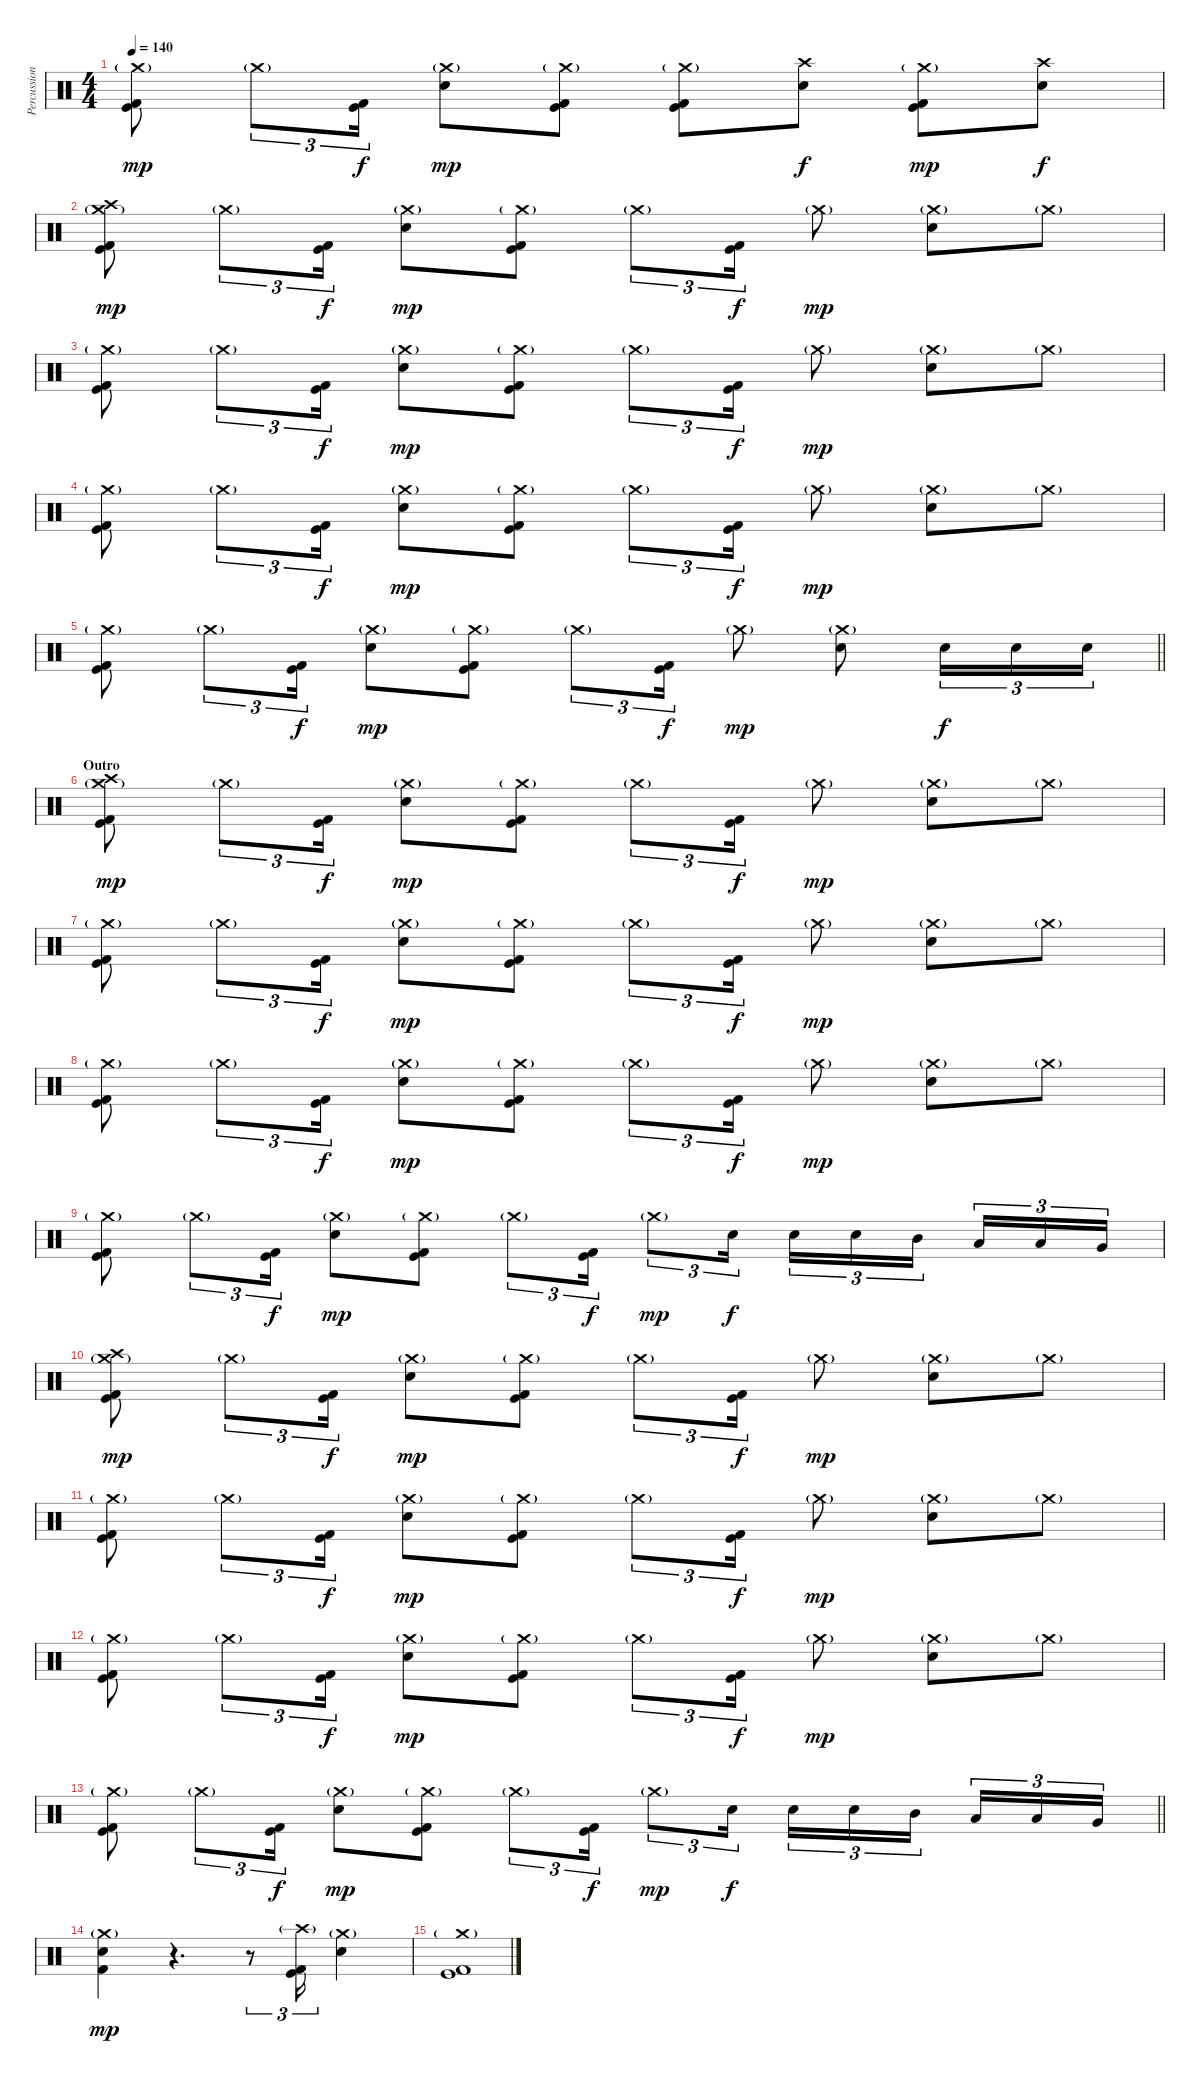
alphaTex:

\track ("Percussion" "Percussion") {instrument percussion}
\staff {score}
\articulation defaults
\ts (4 4)
\tempo 140
\clef neutral
\ks c
("Crash medium (hit)"{g} "Kick (hit)" "Kick (hit) 2").8{dy mp} "Crash medium (hit)"{g}.8{tu (3 2)} ("Kick (hit)" "Kick (hit) 2").16{tu (3 2) dy f} ("Crash medium (hit)"{g} "Electric Snare (hit)").8{dy mp} ("Crash medium (hit)"{g} "Kick (hit)" "Kick (hit) 2").8 ("Crash medium (hit)"{g} "Kick (hit)" "Kick (hit) 2").8 ("Crash high (hit)" "Electric Snare (hit)").8{dy f} ("Crash medium (hit)"{g} "Kick (hit)" "Kick (hit) 2").8{dy mp} ("Crash high (hit)" "Electric Snare (hit)").8{dy f} |
("Crash medium (hit)"{g} "Crash high (hit)" "Kick (hit)" "Kick (hit) 2").8{dy mp} "Crash medium (hit)"{g}.8{tu (3 2)} ("Kick (hit)" "Kick (hit) 2").16{tu (3 2) dy f} ("Crash medium (hit)"{g} "Electric Snare (hit)").8{dy mp} ("Crash medium (hit)"{g} "Kick (hit)" "Kick (hit) 2").8 "Crash medium (hit)"{g}.8{tu (3 2)} ("Kick (hit)" "Kick (hit) 2").16{tu (3 2) dy f} "Crash medium (hit)"{g}.8{dy mp} ("Crash medium (hit)"{g} "Electric Snare (hit)").8 "Crash medium (hit)"{g}.8 |
("Crash medium (hit)"{g} "Kick (hit)" "Kick (hit) 2").8 "Crash medium (hit)"{g}.8{tu (3 2)} ("Kick (hit)" "Kick (hit) 2").16{tu (3 2) dy f} ("Crash medium (hit)"{g} "Electric Snare (hit)").8{dy mp} ("Crash medium (hit)"{g} "Kick (hit)" "Kick (hit) 2").8 "Crash medium (hit)"{g}.8{tu (3 2)} ("Kick (hit)" "Kick (hit) 2").16{tu (3 2) dy f} "Crash medium (hit)"{g}.8{dy mp} ("Crash medium (hit)"{g} "Electric Snare (hit)").8 "Crash medium (hit)"{g}.8 |
("Crash medium (hit)"{g} "Kick (hit)" "Kick (hit) 2").8 "Crash medium (hit)"{g}.8{tu (3 2)} ("Kick (hit)" "Kick (hit) 2").16{tu (3 2) dy f} ("Crash medium (hit)"{g} "Electric Snare (hit)").8{dy mp} ("Crash medium (hit)"{g} "Kick (hit)" "Kick (hit) 2").8 "Crash medium (hit)"{g}.8{tu (3 2)} ("Kick (hit)" "Kick (hit) 2").16{tu (3 2) dy f} "Crash medium (hit)"{g}.8{dy mp} ("Crash medium (hit)"{g} "Electric Snare (hit)").8 "Crash medium (hit)"{g}.8 |
\barLineRight lightlight
("Crash medium (hit)"{g} "Kick (hit)" "Kick (hit) 2").8 "Crash medium (hit)"{g}.8{tu (3 2)} ("Kick (hit)" "Kick (hit) 2").16{tu (3 2) dy f} ("Crash medium (hit)"{g} "Electric Snare (hit)").8{dy mp} ("Crash medium (hit)"{g} "Kick (hit)" "Kick (hit) 2").8 "Crash medium (hit)"{g}.8{tu (3 2)} ("Kick (hit)" "Kick (hit) 2").16{tu (3 2) dy f} "Crash medium (hit)"{g}.8{dy mp} ("Crash medium (hit)"{g} "Electric Snare (hit)").8 "Electric Snare (hit)".16{tu (3 2) dy f} "Electric Snare (hit)".16{tu (3 2)} "Electric Snare (hit)".16{tu (3 2)} |
\section ("" "Outro")
("Crash medium (hit)"{g} "Crash high (hit)" "Kick (hit)" "Kick (hit) 2").8{dy mp} "Crash medium (hit)"{g}.8{tu (3 2)} ("Kick (hit)" "Kick (hit) 2").16{tu (3 2) dy f} ("Crash medium (hit)"{g} "Electric Snare (hit)").8{dy mp} ("Crash medium (hit)"{g} "Kick (hit)" "Kick (hit) 2").8 "Crash medium (hit)"{g}.8{tu (3 2)} ("Kick (hit)" "Kick (hit) 2").16{tu (3 2) dy f} "Crash medium (hit)"{g}.8{dy mp} ("Crash medium (hit)"{g} "Electric Snare (hit)").8 "Crash medium (hit)"{g}.8 |
("Crash medium (hit)"{g} "Kick (hit)" "Kick (hit) 2").8 "Crash medium (hit)"{g}.8{tu (3 2)} ("Kick (hit)" "Kick (hit) 2").16{tu (3 2) dy f} ("Crash medium (hit)"{g} "Electric Snare (hit)").8{dy mp} ("Crash medium (hit)"{g} "Kick (hit)" "Kick (hit) 2").8 "Crash medium (hit)"{g}.8{tu (3 2)} ("Kick (hit)" "Kick (hit) 2").16{tu (3 2) dy f} "Crash medium (hit)"{g}.8{dy mp} ("Crash medium (hit)"{g} "Electric Snare (hit)").8 "Crash medium (hit)"{g}.8 |
("Crash medium (hit)"{g} "Kick (hit)" "Kick (hit) 2").8 "Crash medium (hit)"{g}.8{tu (3 2)} ("Kick (hit)" "Kick (hit) 2").16{tu (3 2) dy f} ("Crash medium (hit)"{g} "Electric Snare (hit)").8{dy mp} ("Crash medium (hit)"{g} "Kick (hit)" "Kick (hit) 2").8 "Crash medium (hit)"{g}.8{tu (3 2)} ("Kick (hit)" "Kick (hit) 2").16{tu (3 2) dy f} "Crash medium (hit)"{g}.8{dy mp} ("Crash medium (hit)"{g} "Electric Snare (hit)").8 "Crash medium (hit)"{g}.8 |
("Crash medium (hit)"{g} "Kick (hit)" "Kick (hit) 2").8 "Crash medium (hit)"{g}.8{tu (3 2)} ("Kick (hit)" "Kick (hit) 2").16{tu (3 2) dy f} ("Crash medium (hit)"{g} "Electric Snare (hit)").8{dy mp} ("Crash medium (hit)"{g} "Kick (hit)" "Kick (hit) 2").8 "Crash medium (hit)"{g}.8{tu (3 2)} ("Kick (hit)" "Kick (hit) 2").16{tu (3 2) dy f} "Crash medium (hit)"{g}.8{tu (3 2) dy mp} "Electric Snare (hit)".16{tu (3 2) dy f} "Electric Snare (hit)".16{tu (3 2)} "Electric Snare (hit)".16{tu (3 2)} "Mid Tom (hit)".16{tu (3 2) beam splitsecondary} "Low Tom (hit)".16{tu (3 2)} "Low Tom (hit)".16{tu (3 2)} "Very Low Tom (hit)".16{tu (3 2)} |
("Crash medium (hit)"{g} "Crash high (hit)" "Kick (hit)" "Kick (hit) 2").8{dy mp} "Crash medium (hit)"{g}.8{tu (3 2)} ("Kick (hit)" "Kick (hit) 2").16{tu (3 2) dy f} ("Crash medium (hit)"{g} "Electric Snare (hit)").8{dy mp} ("Crash medium (hit)"{g} "Kick (hit)" "Kick (hit) 2").8 "Crash medium (hit)"{g}.8{tu (3 2)} ("Kick (hit)" "Kick (hit) 2").16{tu (3 2) dy f} "Crash medium (hit)"{g}.8{dy mp} ("Crash medium (hit)"{g} "Electric Snare (hit)").8 "Crash medium (hit)"{g}.8 |
("Crash medium (hit)"{g} "Kick (hit)" "Kick (hit) 2").8 "Crash medium (hit)"{g}.8{tu (3 2)} ("Kick (hit)" "Kick (hit) 2").16{tu (3 2) dy f} ("Crash medium (hit)"{g} "Electric Snare (hit)").8{dy mp} ("Crash medium (hit)"{g} "Kick (hit)" "Kick (hit) 2").8 "Crash medium (hit)"{g}.8{tu (3 2)} ("Kick (hit)" "Kick (hit) 2").16{tu (3 2) dy f} "Crash medium (hit)"{g}.8{dy mp} ("Crash medium (hit)"{g} "Electric Snare (hit)").8 "Crash medium (hit)"{g}.8 |
("Crash medium (hit)"{g} "Kick (hit)" "Kick (hit) 2").8 "Crash medium (hit)"{g}.8{tu (3 2)} ("Kick (hit)" "Kick (hit) 2").16{tu (3 2) dy f} ("Crash medium (hit)"{g} "Electric Snare (hit)").8{dy mp} ("Crash medium (hit)"{g} "Kick (hit)" "Kick (hit) 2").8 "Crash medium (hit)"{g}.8{tu (3 2)} ("Kick (hit)" "Kick (hit) 2").16{tu (3 2) dy f} "Crash medium (hit)"{g}.8{dy mp} ("Crash medium (hit)"{g} "Electric Snare (hit)").8 "Crash medium (hit)"{g}.8 |
\barLineRight lightlight
("Crash medium (hit)"{g} "Kick (hit)" "Kick (hit) 2").8 "Crash medium (hit)"{g}.8{tu (3 2)} ("Kick (hit)" "Kick (hit) 2").16{tu (3 2) dy f} ("Crash medium (hit)"{g} "Electric Snare (hit)").8{dy mp} ("Crash medium (hit)"{g} "Kick (hit)" "Kick (hit) 2").8 "Crash medium (hit)"{g}.8{tu (3 2)} ("Kick (hit)" "Kick (hit) 2").16{tu (3 2) dy f} "Crash medium (hit)"{g}.8{tu (3 2) dy mp} "Electric Snare (hit)".16{tu (3 2) dy f} "Electric Snare (hit)".16{tu (3 2)} "Electric Snare (hit)".16{tu (3 2)} "Mid Tom (hit)".16{tu (3 2) beam splitsecondary} "Low Tom (hit)".16{tu (3 2)} "Low Tom (hit)".16{tu (3 2)} "Very Low Tom (hit)".16{tu (3 2)} |
("Crash medium (hit)"{g} "Electric Snare (hit)" "Kick (hit) 2").4{dy mp} r.4{d} r.8{tu (3 2)} ("Crash high (hit)"{g} "Kick (hit)" "Kick (hit) 2").16{tu (3 2)} ("Crash medium (hit)"{g} "Electric Snare (hit)").4 |
("Crash medium (hit)"{g} "Kick (hit)" "Kick (hit) 2").1
